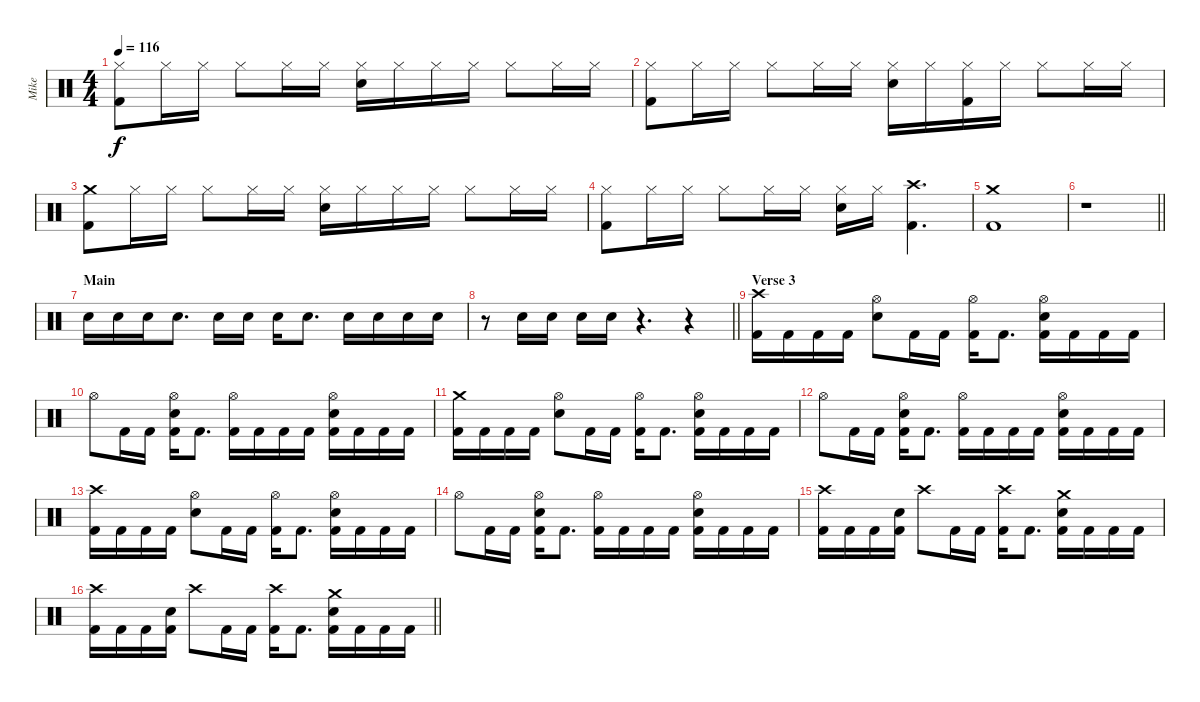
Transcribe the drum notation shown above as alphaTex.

\track ("Mike" "Mike") {instrument percussion}
\staff {score}
\articulation defaults
\ts (4 4)
\tempo 116
\clef neutral
\ks c
("Hi-Hat (closed)" "Kick (hit) 2").8{dy f} "Hi-Hat (closed)".16 "Hi-Hat (closed)".16 "Hi-Hat (closed)".8 "Hi-Hat (closed)".16 "Hi-Hat (closed)".16 ("Snare (hit) 2" "Hi-Hat (closed)").16 "Hi-Hat (closed)".16 "Hi-Hat (closed)".16 "Hi-Hat (closed)".16 "Hi-Hat (closed)".8 "Hi-Hat (closed)".16 "Hi-Hat (closed)".16 |
("Hi-Hat (closed)" "Kick (hit) 2").8 "Hi-Hat (closed)".16 "Hi-Hat (closed)".16 "Hi-Hat (closed)".8 "Hi-Hat (closed)".16 "Hi-Hat (closed)".16 ("Snare (hit) 2" "Hi-Hat (closed)").16 "Hi-Hat (closed)".16 ("Hi-Hat (closed)" "Kick (hit) 2").16 "Hi-Hat (closed)".16 "Hi-Hat (closed)".8 "Hi-Hat (closed)".16 "Hi-Hat (closed)".16 |
("Crash medium (hit)" "Kick (hit) 2").8 "Hi-Hat (closed)".16 "Hi-Hat (closed)".16 "Hi-Hat (closed)".8 "Hi-Hat (closed)".16 "Hi-Hat (closed)".16 ("Snare (hit) 2" "Hi-Hat (closed)").16 "Hi-Hat (closed)".16 "Hi-Hat (closed)".16 "Hi-Hat (closed)".16 "Hi-Hat (closed)".8 "Hi-Hat (closed)".16 "Hi-Hat (closed)".16 |
("Hi-Hat (closed)" "Kick (hit) 2").8 "Hi-Hat (closed)".16 "Hi-Hat (closed)".16 "Hi-Hat (closed)".8 "Hi-Hat (closed)".16 "Hi-Hat (closed)".16 ("Snare (hit) 2" "Hi-Hat (closed)").16 "Hi-Hat (closed)".16 ("Crash high (hit)" "Kick (hit) 2").4{d} |
("Crash medium (hit)" "Kick (hit) 2").1 |
\barLineRight lightlight
r.1 |
\section ("" "Main")
"Snare (hit) 2".16 "Snare (hit) 2".16 "Snare (hit) 2".16 "Snare (hit) 2".8{d} "Snare (hit) 2".16 "Snare (hit) 2".16 "Snare (hit) 2".16 "Snare (hit) 2".8{d} "Snare (hit) 2".16 "Snare (hit) 2".16 "Snare (hit) 2".16 "Snare (hit) 2".16 |
\barLineRight lightlight
r.8 "Snare (hit) 2".16 "Snare (hit) 2".16 "Snare (hit) 2".16 "Snare (hit) 2".16 r.4{d} r.4 |
\section ("" "Verse 3")
("Crash high (hit)" "Kick (hit) 2").16 "Kick (hit) 2".16 "Kick (hit) 2".16 "Kick (hit) 2".16 ("Snare (hit) 2" "Hi-Hat (open)").8 "Kick (hit) 2".16 "Kick (hit) 2".16 ("Hi-Hat (open)" "Kick (hit) 2").16 "Kick (hit) 2".8{d} ("Snare (hit) 2" "Hi-Hat (open)" "Kick (hit) 2").16 "Kick (hit) 2".16 "Kick (hit) 2".16 "Kick (hit) 2".16 |
"Hi-Hat (open)".8 "Kick (hit) 2".16 "Kick (hit) 2".16 ("Snare (hit) 2" "Hi-Hat (open)" "Kick (hit) 2").16 "Kick (hit) 2".8{d} ("Hi-Hat (open)" "Kick (hit) 2").16 "Kick (hit) 2".16 "Kick (hit) 2".16 "Kick (hit) 2".16 ("Snare (hit) 2" "Hi-Hat (open)" "Kick (hit) 2").16 "Kick (hit) 2".16 "Kick (hit) 2".16 "Kick (hit) 2".16 |
("Crash medium (hit)" "Kick (hit) 2").16 "Kick (hit) 2".16 "Kick (hit) 2".16 "Kick (hit) 2".16 ("Snare (hit) 2" "Hi-Hat (open)").8 "Kick (hit) 2".16 "Kick (hit) 2".16 ("Hi-Hat (open)" "Kick (hit) 2").16 "Kick (hit) 2".8{d} ("Snare (hit) 2" "Hi-Hat (open)" "Kick (hit) 2").16 "Kick (hit) 2".16 "Kick (hit) 2".16 "Kick (hit) 2".16 |
"Hi-Hat (open)".8 "Kick (hit) 2".16 "Kick (hit) 2".16 ("Snare (hit) 2" "Hi-Hat (open)" "Kick (hit) 2").16 "Kick (hit) 2".8{d} ("Hi-Hat (open)" "Kick (hit) 2").16 "Kick (hit) 2".16 "Kick (hit) 2".16 "Kick (hit) 2".16 ("Snare (hit) 2" "Hi-Hat (open)" "Kick (hit) 2").16 "Kick (hit) 2".16 "Kick (hit) 2".16 "Kick (hit) 2".16 |
("Crash high (hit)" "Kick (hit) 2").16 "Kick (hit) 2".16 "Kick (hit) 2".16 "Kick (hit) 2".16 ("Snare (hit) 2" "Hi-Hat (open)").8 "Kick (hit) 2".16 "Kick (hit) 2".16 ("Hi-Hat (open)" "Kick (hit) 2").16 "Kick (hit) 2".8{d} ("Snare (hit) 2" "Hi-Hat (open)" "Kick (hit) 2").16 "Kick (hit) 2".16 "Kick (hit) 2".16 "Kick (hit) 2".16 |
"Hi-Hat (open)".8 "Kick (hit) 2".16 "Kick (hit) 2".16 ("Snare (hit) 2" "Hi-Hat (open)" "Kick (hit) 2").16 "Kick (hit) 2".8{d} ("Hi-Hat (open)" "Kick (hit) 2").16 "Kick (hit) 2".16 "Kick (hit) 2".16 "Kick (hit) 2".16 ("Snare (hit) 2" "Hi-Hat (open)" "Kick (hit) 2").16 "Kick (hit) 2".16 "Kick (hit) 2".16 "Kick (hit) 2".16 |
("Crash high (hit)" "Kick (hit) 2").16 "Kick (hit) 2".16 "Kick (hit) 2".16 ("Snare (hit) 2" "Kick (hit) 2").16 "Crash high (hit)".8 "Kick (hit) 2".16 "Kick (hit) 2".16 ("Crash high (hit)" "Kick (hit) 2").16 "Kick (hit) 2".8{d} ("Crash medium (hit)" "Snare (hit) 2" "Kick (hit) 2").16 "Kick (hit) 2".16 "Kick (hit) 2".16 "Kick (hit) 2".16 |
\barLineRight lightlight
("Crash high (hit)" "Kick (hit) 2").16 "Kick (hit) 2".16 "Kick (hit) 2".16 ("Snare (hit) 2" "Kick (hit) 2").16 "Crash high (hit)".8 "Kick (hit) 2".16 "Kick (hit) 2".16 ("Crash high (hit)" "Kick (hit) 2").16 "Kick (hit) 2".8{d} ("Crash medium (hit)" "Snare (hit) 2" "Kick (hit) 2").16 "Kick (hit) 2".16 "Kick (hit) 2".16 "Kick (hit) 2".16
